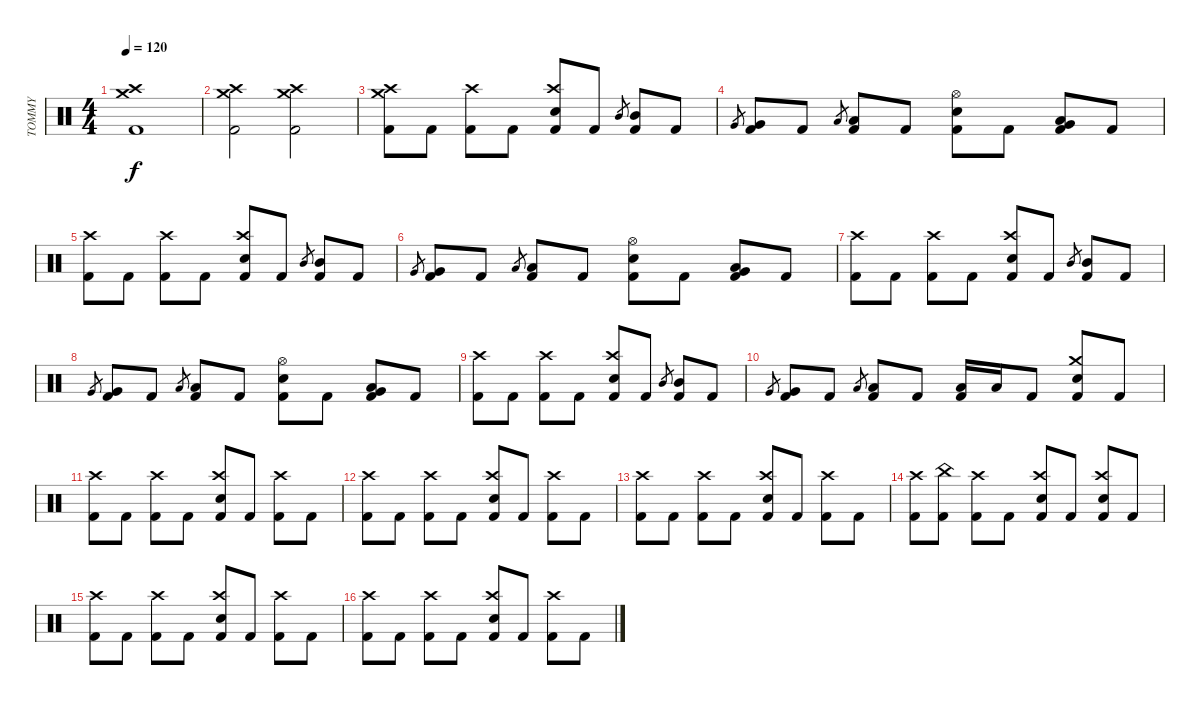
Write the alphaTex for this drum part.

\track ("TOMMY" "TOMMY") {instrument percussion}
\staff {score}
\articulation defaults
\ts (4 4)
\tempo 120
\clef neutral
\ks c
("Kick (hit) 2" "Crash high (hit)" "Crash medium (hit)").1{dy f} |
("Kick (hit) 2" "Crash high (hit)" "Crash medium (hit)").2 ("Kick (hit) 2" "Crash high (hit)" "Crash medium (hit)").2 |
("Kick (hit) 2" "Crash medium (hit)" "Crash high (hit)").8 "Kick (hit) 2".8 ("Kick (hit) 2" "Crash high (hit)").8 "Kick (hit) 2".8 ("Snare (hit) 2" "Kick (hit) 2" "Crash high (hit)").8 "Kick (hit) 2".8 "Mid Tom (hit)".8{gr} ("Kick (hit) 2" "Mid Tom (hit)").8 "Kick (hit) 2".8 |
"Very Low Tom (hit)".8{gr} ("Kick (hit) 2" "Very Low Tom (hit)").8 "Kick (hit) 2".8 "Low Floor Tom (hit)".8{gr} ("Kick (hit) 2" "Low Floor Tom (hit)").8 "Kick (hit) 2".8 ("Snare (hit) 2" "Kick (hit) 2" "Hi-Hat (open)").8 "Kick (hit) 2".8 ("Kick (hit) 2" "Very Low Tom (hit)" "Low Floor Tom (hit)").8 "Kick (hit) 2".8 |
("Kick (hit) 2" "Crash high (hit)").8 "Kick (hit) 2".8 ("Kick (hit) 2" "Crash high (hit)").8 "Kick (hit) 2".8 ("Snare (hit) 2" "Kick (hit) 2" "Crash high (hit)").8 "Kick (hit) 2".8 "Mid Tom (hit)".8{gr} ("Kick (hit) 2" "Mid Tom (hit)").8 "Kick (hit) 2".8 |
"Very Low Tom (hit)".8{gr} ("Kick (hit) 2" "Very Low Tom (hit)").8 "Kick (hit) 2".8 "Low Floor Tom (hit)".8{gr} ("Kick (hit) 2" "Low Floor Tom (hit)").8 "Kick (hit) 2".8 ("Snare (hit) 2" "Kick (hit) 2" "Hi-Hat (open)").8 "Kick (hit) 2".8 ("Kick (hit) 2" "Very Low Tom (hit)" "Low Floor Tom (hit)").8 "Kick (hit) 2".8 |
("Kick (hit) 2" "Crash high (hit)").8 "Kick (hit) 2".8 ("Kick (hit) 2" "Crash high (hit)").8 "Kick (hit) 2".8 ("Snare (hit) 2" "Kick (hit) 2" "Crash high (hit)").8 "Kick (hit) 2".8 "Mid Tom (hit)".8{gr} ("Kick (hit) 2" "Mid Tom (hit)").8 "Kick (hit) 2".8 |
"Very Low Tom (hit)".8{gr} ("Kick (hit) 2" "Very Low Tom (hit)").8 "Kick (hit) 2".8 "Low Floor Tom (hit)".8{gr} ("Kick (hit) 2" "Low Floor Tom (hit)").8 "Kick (hit) 2".8 ("Snare (hit) 2" "Kick (hit) 2" "Hi-Hat (open)").8 "Kick (hit) 2".8 ("Kick (hit) 2" "Very Low Tom (hit)" "Low Floor Tom (hit)").8 "Kick (hit) 2".8 |
("Kick (hit) 2" "Crash high (hit)").8 "Kick (hit) 2".8 ("Kick (hit) 2" "Crash high (hit)").8 "Kick (hit) 2".8 ("Snare (hit) 2" "Kick (hit) 2" "Crash high (hit)").8 "Kick (hit) 2".8 "Mid Tom (hit)".8{gr} ("Kick (hit) 2" "Mid Tom (hit)").8 "Kick (hit) 2".8 |
"Very Low Tom (hit)".8{gr} ("Kick (hit) 2" "Very Low Tom (hit)").8 "Kick (hit) 2".8 "Low Floor Tom (hit)".8{gr} ("Kick (hit) 2" "Low Floor Tom (hit)").8 "Kick (hit) 2".8 ("Kick (hit) 2" "Low Floor Tom (hit)").16 "Low Floor Tom (hit)".16 "Kick (hit) 2".8 ("Snare (hit) 2" "Kick (hit) 2" "Crash medium (hit)").8 "Kick (hit) 2".8 |
("Kick (hit) 2" "Crash high (hit)").8 "Kick (hit) 2".8 ("Kick (hit) 2" "Crash high (hit)").8 "Kick (hit) 2".8 ("Snare (hit) 2" "Kick (hit) 2" "Crash high (hit)").8 "Kick (hit) 2".8 ("Kick (hit) 2" "Crash high (hit)").8 "Kick (hit) 2".8 |
("Kick (hit) 2" "Crash high (hit)").8 "Kick (hit) 2".8 ("Kick (hit) 2" "Crash high (hit)").8 "Kick (hit) 2".8 ("Snare (hit) 2" "Kick (hit) 2" "Crash high (hit)").8 "Kick (hit) 2".8 ("Kick (hit) 2" "Crash high (hit)").8 "Kick (hit) 2".8 |
("Kick (hit) 2" "Crash high (hit)").8 "Kick (hit) 2".8 ("Kick (hit) 2" "Crash high (hit)").8 "Kick (hit) 2".8 ("Snare (hit) 2" "Kick (hit) 2" "Crash high (hit)").8 "Kick (hit) 2".8 ("Kick (hit) 2" "Crash high (hit)").8 "Kick (hit) 2".8 |
("Kick (hit) 2" "Crash high (hit)").8 ("Kick (hit) 2" "China (hit)").8 ("Kick (hit) 2" "Crash high (hit)").8 "Kick (hit) 2".8 ("Snare (hit) 2" "Kick (hit) 2" "Crash high (hit)").8 "Kick (hit) 2".8 ("Snare (hit) 2" "Kick (hit) 2" "Crash high (hit)").8 "Kick (hit) 2".8 |
("Kick (hit) 2" "Crash high (hit)").8 "Kick (hit) 2".8 ("Kick (hit) 2" "Crash high (hit)").8 "Kick (hit) 2".8 ("Snare (hit) 2" "Kick (hit) 2" "Crash high (hit)").8 "Kick (hit) 2".8 ("Kick (hit) 2" "Crash high (hit)").8 "Kick (hit) 2".8 |
("Kick (hit) 2" "Crash high (hit)").8 "Kick (hit) 2".8 ("Kick (hit) 2" "Crash high (hit)").8 "Kick (hit) 2".8 ("Snare (hit) 2" "Kick (hit) 2" "Crash high (hit)").8 "Kick (hit) 2".8 ("Kick (hit) 2" "Crash high (hit)").8 "Kick (hit) 2".8
